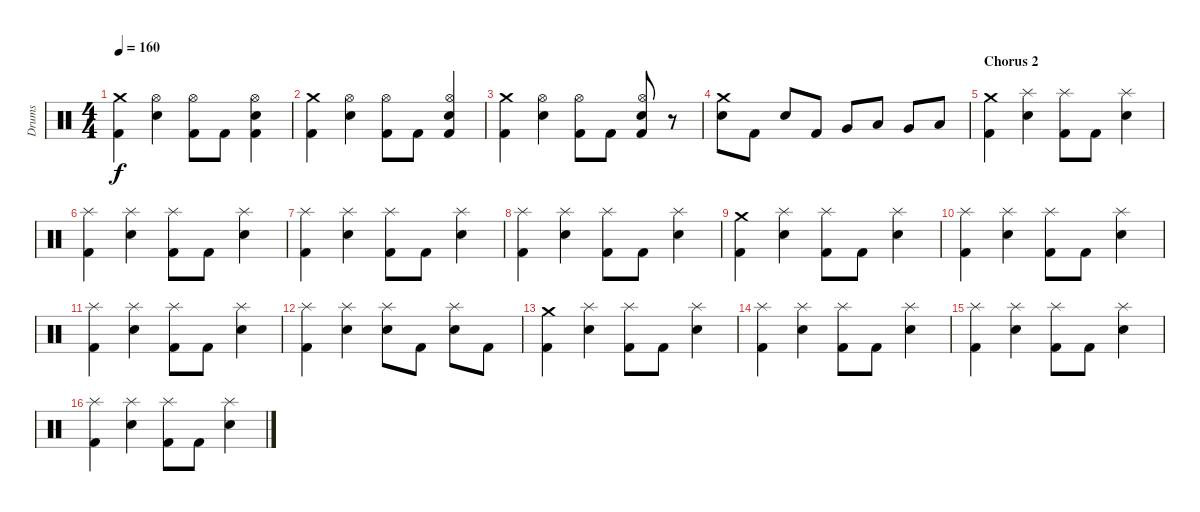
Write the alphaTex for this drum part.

\track ("Drums" "Drums") {instrument percussion}
\staff {score}
\articulation defaults
\ts (4 4)
\tempo 160
\clef neutral
\ks c
("Kick (hit) 2" "Crash medium (hit)").4{dy f} ("Snare (hit) 2" "Hi-Hat (open)").4 ("Kick (hit) 2" "Hi-Hat (open)").8 "Kick (hit) 2".8 ("Snare (hit) 2" "Hi-Hat (open)" "Kick (hit) 2").4 |
("Kick (hit) 2" "Crash medium (hit)").4 ("Electric Snare (hit)" "Hi-Hat (open)").4 ("Kick (hit) 2" "Hi-Hat (open)").8 "Kick (hit) 2".8 ("Electric Snare (hit)" "Hi-Hat (open)" "Kick (hit) 2").4 |
("Kick (hit) 2" "Crash medium (hit)").4 ("Snare (hit) 2" "Hi-Hat (open)").4 ("Kick (hit) 2" "Hi-Hat (open)").8 "Kick (hit) 2".8 ("Electric Snare (hit)" "Hi-Hat (open)" "Kick (hit) 2").8 r.8 |
("Crash medium (hit)" "Electric Snare (hit)").8 "Kick (hit) 2".8 "Electric Snare (hit)".8 "Kick (hit) 2".8 "Very Low Tom (hit)".8 "Low Tom (hit)".8 "Very Low Tom (hit)".8 "Low Floor Tom (hit)".8 |
\section ("" "Chorus 2")
("Kick (hit) 2" "Crash medium (hit)").4 ("Splash (hit)" "Electric Snare (hit)").4 ("Kick (hit) 2" "Splash (hit)").8 "Kick (hit) 2".8 ("Splash (hit)" "Electric Snare (hit)").4 |
("Kick (hit) 2" "Splash (hit)").4 ("Splash (hit)" "Electric Snare (hit)").4 ("Kick (hit) 2" "Splash (hit)").8 "Kick (hit) 2".8 ("Splash (hit)" "Electric Snare (hit)").4 |
("Kick (hit) 2" "Splash (hit)").4 ("Electric Snare (hit)" "Splash (hit)").4 ("Kick (hit) 2" "Splash (hit)").8 "Kick (hit) 2".8 ("Electric Snare (hit)" "Splash (hit)").4 |
("Kick (hit) 2" "Splash (hit)").4 ("Electric Snare (hit)" "Splash (hit)").4 ("Kick (hit) 2" "Splash (hit)").8 "Kick (hit) 2".8 ("Electric Snare (hit)" "Splash (hit)").4 |
("Kick (hit) 2" "Crash medium (hit)").4 ("Splash (hit)" "Electric Snare (hit)").4 ("Kick (hit) 2" "Splash (hit)").8 "Kick (hit) 2".8 ("Splash (hit)" "Electric Snare (hit)").4 |
("Kick (hit) 2" "Splash (hit)").4 ("Splash (hit)" "Electric Snare (hit)").4 ("Kick (hit) 2" "Splash (hit)").8 "Kick (hit) 2".8 ("Splash (hit)" "Electric Snare (hit)").4 |
("Kick (hit) 2" "Splash (hit)").4 ("Electric Snare (hit)" "Splash (hit)").4 ("Kick (hit) 2" "Splash (hit)").8 "Kick (hit) 2".8 ("Electric Snare (hit)" "Splash (hit)").4 |
("Kick (hit) 2" "Splash (hit)").4 ("Electric Snare (hit)" "Splash (hit)").4 ("Snare (hit) 2" "Splash (hit)").8 "Kick (hit) 2".8 ("Electric Snare (hit)" "Splash (hit)").8 "Kick (hit) 2".8 |
("Kick (hit) 2" "Crash medium (hit)").4 ("Splash (hit)" "Electric Snare (hit)").4 ("Kick (hit) 2" "Splash (hit)").8 "Kick (hit) 2".8 ("Splash (hit)" "Electric Snare (hit)").4 |
("Kick (hit) 2" "Splash (hit)").4 ("Splash (hit)" "Electric Snare (hit)").4 ("Kick (hit) 2" "Splash (hit)").8 "Kick (hit) 2".8 ("Splash (hit)" "Electric Snare (hit)").4 |
("Kick (hit) 2" "Splash (hit)").4 ("Electric Snare (hit)" "Splash (hit)").4 ("Kick (hit) 2" "Splash (hit)").8 "Kick (hit) 2".8 ("Electric Snare (hit)" "Splash (hit)").4 |
("Kick (hit) 2" "Splash (hit)").4 ("Electric Snare (hit)" "Splash (hit)").4 ("Kick (hit) 2" "Splash (hit)").8 "Kick (hit) 2".8 ("Electric Snare (hit)" "Splash (hit)").4
